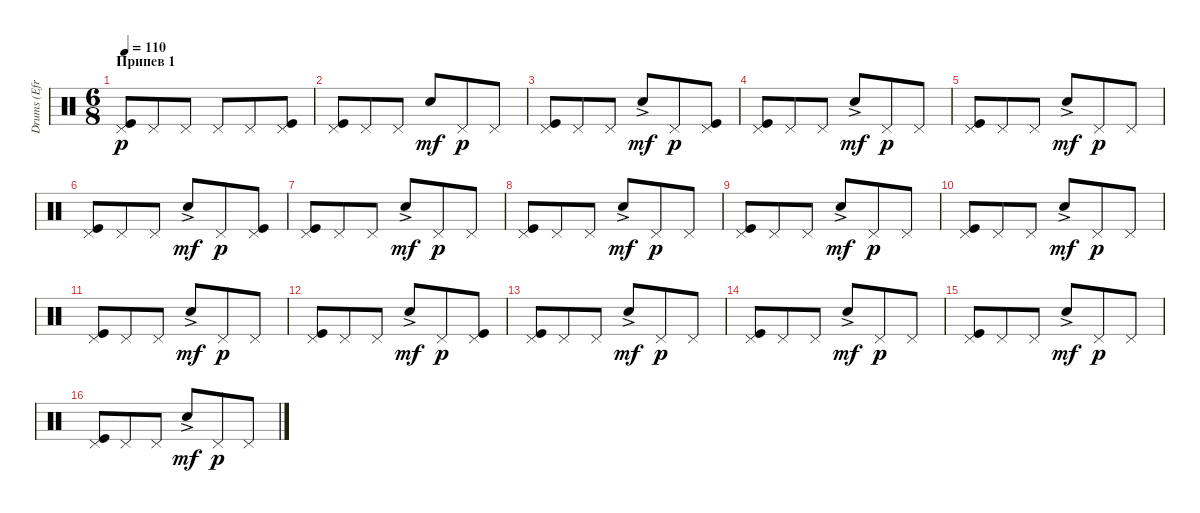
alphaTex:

\track ("Drums (Efremov)" "Drums (Efr") {instrument percussion}
\staff {score}
\articulation defaults
\ts (6 8)
\section ("" "Припев 1")
\tempo 110
\clef neutral
\ks c
("Pedal Hi-Hat (hit)" "Kick (hit)").8{dy p} "Pedal Hi-Hat (hit)".8 "Pedal Hi-Hat (hit)".8 "Pedal Hi-Hat (hit)".8 "Pedal Hi-Hat (hit)".8 ("Kick (hit)" "Pedal Hi-Hat (hit)").8 |
("Pedal Hi-Hat (hit)" "Kick (hit)").8 "Pedal Hi-Hat (hit)".8 "Pedal Hi-Hat (hit)".8 "Electric Snare (hit)".8{dy mf} "Pedal Hi-Hat (hit)".8{dy p} "Pedal Hi-Hat (hit)".8 |
("Pedal Hi-Hat (hit)" "Kick (hit)").8 "Pedal Hi-Hat (hit)".8 "Pedal Hi-Hat (hit)".8 "Electric Snare (hit)"{ac}.8{dy mf} "Pedal Hi-Hat (hit)".8{dy p} ("Kick (hit)" "Pedal Hi-Hat (hit)").8 |
("Pedal Hi-Hat (hit)" "Kick (hit)").8 "Pedal Hi-Hat (hit)".8 "Pedal Hi-Hat (hit)".8 "Electric Snare (hit)"{ac}.8{dy mf} "Pedal Hi-Hat (hit)".8{dy p} "Pedal Hi-Hat (hit)".8 |
("Pedal Hi-Hat (hit)" "Kick (hit)").8 "Pedal Hi-Hat (hit)".8 "Pedal Hi-Hat (hit)".8 "Electric Snare (hit)"{ac}.8{dy mf} "Pedal Hi-Hat (hit)".8{dy p} "Pedal Hi-Hat (hit)".8 |
("Pedal Hi-Hat (hit)" "Kick (hit)").8 "Pedal Hi-Hat (hit)".8 "Pedal Hi-Hat (hit)".8 "Electric Snare (hit)"{ac}.8{dy mf} "Pedal Hi-Hat (hit)".8{dy p} ("Kick (hit)" "Pedal Hi-Hat (hit)").8 |
("Pedal Hi-Hat (hit)" "Kick (hit)").8 "Pedal Hi-Hat (hit)".8 "Pedal Hi-Hat (hit)".8 "Electric Snare (hit)"{ac}.8{dy mf} "Pedal Hi-Hat (hit)".8{dy p} "Pedal Hi-Hat (hit)".8 |
("Pedal Hi-Hat (hit)" "Kick (hit)").8 "Pedal Hi-Hat (hit)".8 "Pedal Hi-Hat (hit)".8 "Electric Snare (hit)"{ac}.8{dy mf} "Pedal Hi-Hat (hit)".8{dy p} "Pedal Hi-Hat (hit)".8 |
("Pedal Hi-Hat (hit)" "Kick (hit)").8 "Pedal Hi-Hat (hit)".8 "Pedal Hi-Hat (hit)".8 "Electric Snare (hit)"{ac}.8{dy mf} "Pedal Hi-Hat (hit)".8{dy p} "Pedal Hi-Hat (hit)".8 |
("Pedal Hi-Hat (hit)" "Kick (hit)").8 "Pedal Hi-Hat (hit)".8 "Pedal Hi-Hat (hit)".8 "Electric Snare (hit)"{ac}.8{dy mf} "Pedal Hi-Hat (hit)".8{dy p} "Pedal Hi-Hat (hit)".8 |
("Pedal Hi-Hat (hit)" "Kick (hit)").8 "Pedal Hi-Hat (hit)".8 "Pedal Hi-Hat (hit)".8 "Electric Snare (hit)"{ac}.8{dy mf} "Pedal Hi-Hat (hit)".8{dy p} "Pedal Hi-Hat (hit)".8 |
("Pedal Hi-Hat (hit)" "Kick (hit)").8 "Pedal Hi-Hat (hit)".8 "Pedal Hi-Hat (hit)".8 "Electric Snare (hit)"{ac}.8{dy mf} "Pedal Hi-Hat (hit)".8{dy p} ("Kick (hit)" "Pedal Hi-Hat (hit)").8 |
("Pedal Hi-Hat (hit)" "Kick (hit)").8 "Pedal Hi-Hat (hit)".8 "Pedal Hi-Hat (hit)".8 "Electric Snare (hit)"{ac}.8{dy mf} "Pedal Hi-Hat (hit)".8{dy p} "Pedal Hi-Hat (hit)".8 |
("Pedal Hi-Hat (hit)" "Kick (hit)").8 "Pedal Hi-Hat (hit)".8 "Pedal Hi-Hat (hit)".8 "Electric Snare (hit)"{ac}.8{dy mf} "Pedal Hi-Hat (hit)".8{dy p} "Pedal Hi-Hat (hit)".8 |
("Pedal Hi-Hat (hit)" "Kick (hit)").8 "Pedal Hi-Hat (hit)".8 "Pedal Hi-Hat (hit)".8 "Electric Snare (hit)"{ac}.8{dy mf} "Pedal Hi-Hat (hit)".8{dy p} "Pedal Hi-Hat (hit)".8 |
("Pedal Hi-Hat (hit)" "Kick (hit)").8 "Pedal Hi-Hat (hit)".8 "Pedal Hi-Hat (hit)".8 "Electric Snare (hit)"{ac}.8{dy mf} "Pedal Hi-Hat (hit)".8{dy p} "Pedal Hi-Hat (hit)".8
